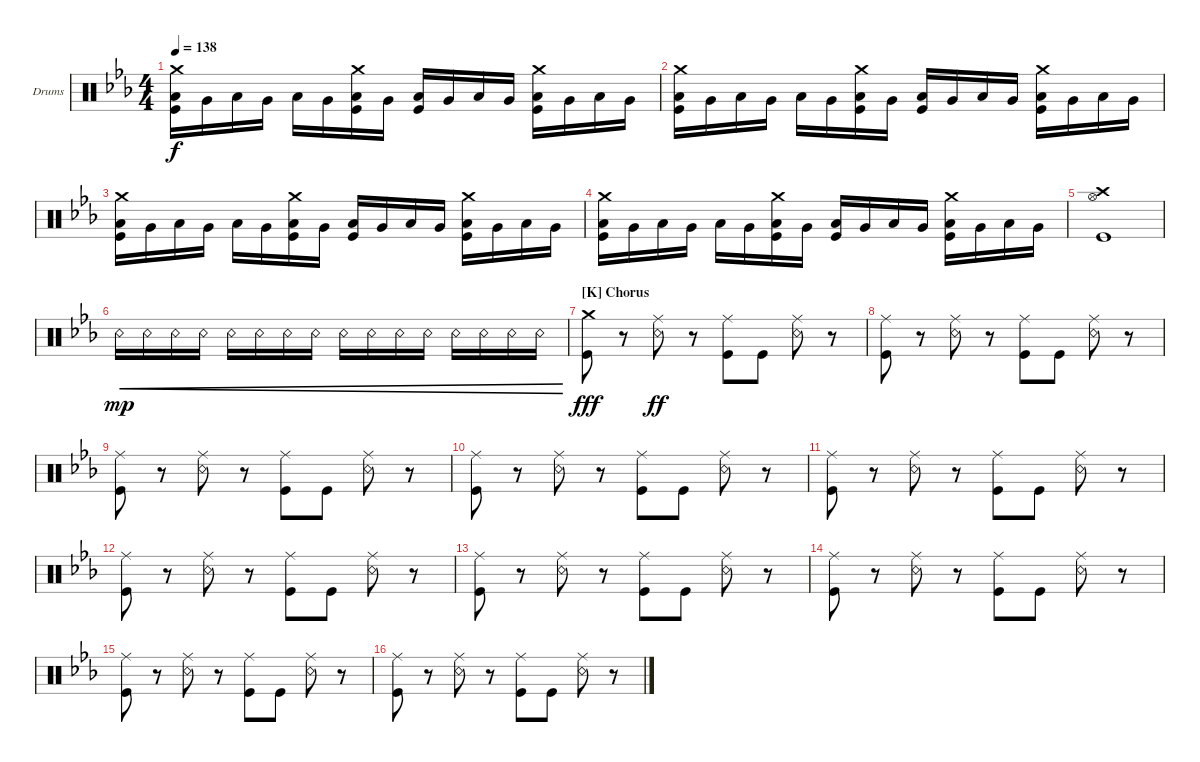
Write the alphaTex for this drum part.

\defaultSystemsLayout 4
\bracketExtendMode groupsimilarinstruments
\firstSystemTrackNameOrientation horizontal
\otherSystemsTrackNameOrientation horizontal
\track ("Drums" "Drums") {instrument percussion}
\staff {score}
\articulation defaults
\ts (4 4)
\tempo 138
\clef neutral
\ks eb
("Kick (hit)" "Low Tom (hit)" "Crash medium (hit)").16{dy f} "Very Low Tom (hit)".16 "Low Tom (hit)".16 "Very Low Tom (hit)".16 "Low Tom (hit)".16 "Very Low Tom (hit)".16 ("Low Tom (hit)" "Crash medium (hit)" "Kick (hit)").16 "Very Low Tom (hit)".16 ("Kick (hit)" "Low Tom (hit)").16 "Very Low Tom (hit)".16 "Low Tom (hit)".16 "Very Low Tom (hit)".16 ("Kick (hit)" "Low Tom (hit)" "Crash medium (hit)").16 "Very Low Tom (hit)".16 "Low Tom (hit)".16 "Very Low Tom (hit)".16 |
("Kick (hit)" "Low Tom (hit)" "Crash medium (hit)").16 "Very Low Tom (hit)".16 "Low Tom (hit)".16 "Very Low Tom (hit)".16 "Low Tom (hit)".16 "Very Low Tom (hit)".16 ("Low Tom (hit)" "Crash medium (hit)" "Kick (hit)").16 "Very Low Tom (hit)".16 ("Kick (hit)" "Low Tom (hit)").16 "Very Low Tom (hit)".16 "Low Tom (hit)".16 "Very Low Tom (hit)".16 ("Kick (hit)" "Low Tom (hit)" "Crash medium (hit)").16 "Very Low Tom (hit)".16 "Low Tom (hit)".16 "Very Low Tom (hit)".16 |
("Kick (hit)" "Low Tom (hit)" "Crash medium (hit)").16 "Very Low Tom (hit)".16 "Low Tom (hit)".16 "Very Low Tom (hit)".16 "Low Tom (hit)".16 "Very Low Tom (hit)".16 ("Low Tom (hit)" "Crash medium (hit)" "Kick (hit)").16 "Very Low Tom (hit)".16 ("Kick (hit)" "Low Tom (hit)").16 "Very Low Tom (hit)".16 "Low Tom (hit)".16 "Very Low Tom (hit)".16 ("Kick (hit)" "Low Tom (hit)" "Crash medium (hit)").16 "Very Low Tom (hit)".16 "Low Tom (hit)".16 "Very Low Tom (hit)".16 |
("Kick (hit)" "Low Tom (hit)" "Crash medium (hit)").16 "Very Low Tom (hit)".16 "Low Tom (hit)".16 "Very Low Tom (hit)".16 "Low Tom (hit)".16 "Very Low Tom (hit)".16 ("Low Tom (hit)" "Crash medium (hit)" "Kick (hit)").16 "Very Low Tom (hit)".16 ("Kick (hit)" "Low Tom (hit)").16 "Very Low Tom (hit)".16 "Low Tom (hit)".16 "Very Low Tom (hit)".16 ("Kick (hit)" "Low Tom (hit)" "Crash medium (hit)").16 "Very Low Tom (hit)".16 "Low Tom (hit)".16 "Very Low Tom (hit)".16 |
("Kick (hit)" "Crash high (hit)" "Hi-Hat (open)").1 |
"Snare (rim shot)".16{cre dy mp} "Snare (rim shot)".16{cre} "Snare (rim shot)".16{cre} "Snare (rim shot)".16{cre} "Snare (rim shot)".16{cre} "Snare (rim shot)".16{cre} "Snare (rim shot)".16{cre} "Snare (rim shot)".16{cre} "Snare (rim shot)".16{cre} "Snare (rim shot)".16{cre} "Snare (rim shot)".16{cre} "Snare (rim shot)".16{cre} "Snare (rim shot)".16{cre} "Snare (rim shot)".16{cre} "Snare (rim shot)".16{cre} "Snare (rim shot)".16{cre} |
\section ("K" "Chorus")
("Kick (hit)" "Crash medium (hit)").8{dy fff} r.8 ("Ride (middle)" "Snare (rim shot)").8{dy ff} r.8 ("Ride (middle)" "Kick (hit)").8 "Kick (hit)".8 ("Ride (middle)" "Snare (rim shot)").8 r.8 |
("Kick (hit)" "Ride (middle)").8 r.8 ("Ride (middle)" "Snare (rim shot)").8 r.8 ("Ride (middle)" "Kick (hit)").8 "Kick (hit)".8 ("Ride (middle)" "Snare (rim shot)").8 r.8 |
("Kick (hit)" "Ride (middle)").8 r.8 ("Ride (middle)" "Snare (rim shot)").8 r.8 ("Ride (middle)" "Kick (hit)").8 "Kick (hit)".8 ("Ride (middle)" "Snare (rim shot)").8 r.8 |
("Kick (hit)" "Ride (middle)").8 r.8 ("Ride (middle)" "Snare (rim shot)").8 r.8 ("Ride (middle)" "Kick (hit)").8 "Kick (hit)".8 ("Ride (middle)" "Snare (rim shot)").8 r.8 |
("Kick (hit)" "Ride (middle)").8 r.8 ("Ride (middle)" "Snare (rim shot)").8 r.8 ("Ride (middle)" "Kick (hit)").8 "Kick (hit)".8 ("Ride (middle)" "Snare (rim shot)").8 r.8 |
("Kick (hit)" "Ride (middle)").8 r.8 ("Ride (middle)" "Snare (rim shot)").8 r.8 ("Ride (middle)" "Kick (hit)").8 "Kick (hit)".8 ("Ride (middle)" "Snare (rim shot)").8 r.8 |
("Kick (hit)" "Ride (middle)").8 r.8 ("Ride (middle)" "Snare (rim shot)").8 r.8 ("Ride (middle)" "Kick (hit)").8 "Kick (hit)".8 ("Ride (middle)" "Snare (rim shot)").8 r.8 |
("Kick (hit)" "Ride (middle)").8 r.8 ("Ride (middle)" "Snare (rim shot)").8 r.8 ("Ride (middle)" "Kick (hit)").8 "Kick (hit)".8 ("Ride (middle)" "Snare (rim shot)").8 r.8 |
("Kick (hit)" "Ride (middle)").8 r.8 ("Ride (middle)" "Snare (rim shot)").8 r.8 ("Ride (middle)" "Kick (hit)").8 "Kick (hit)".8 ("Ride (middle)" "Snare (rim shot)").8 r.8 |
("Kick (hit)" "Ride (middle)").8 r.8 ("Ride (middle)" "Snare (rim shot)").8 r.8 ("Ride (middle)" "Kick (hit)").8 "Kick (hit)".8 ("Ride (middle)" "Snare (rim shot)").8 r.8
